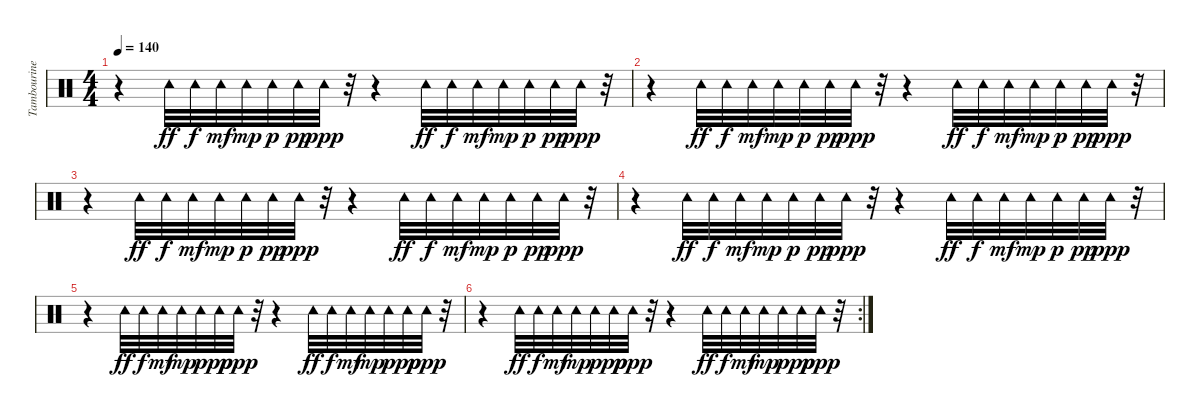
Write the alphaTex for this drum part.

\track ("Tambourine" "Tambourine") {instrument percussion}
\staff {score}
\articulation defaults
\ts (4 4)
\tempo 140
\clef neutral
\ks c
r.4{dy ppp} "Tambourine (hit)".32{dy ff} "Tambourine (hit)".32{dy f} "Tambourine (hit)".32{dy mf} "Tambourine (hit)".32{dy mp} "Tambourine (hit)".32{dy p} "Tambourine (hit)".32{dy pp} "Tambourine (hit)".32{dy ppp} r.32 r.4 "Tambourine (hit)".32{dy ff} "Tambourine (hit)".32{dy f} "Tambourine (hit)".32{dy mf} "Tambourine (hit)".32{dy mp} "Tambourine (hit)".32{dy p} "Tambourine (hit)".32{dy pp} "Tambourine (hit)".32{dy ppp} r.32 |
r.4 "Tambourine (hit)".32{dy ff} "Tambourine (hit)".32{dy f} "Tambourine (hit)".32{dy mf} "Tambourine (hit)".32{dy mp} "Tambourine (hit)".32{dy p} "Tambourine (hit)".32{dy pp} "Tambourine (hit)".32{dy ppp} r.32 r.4 "Tambourine (hit)".32{dy ff} "Tambourine (hit)".32{dy f} "Tambourine (hit)".32{dy mf} "Tambourine (hit)".32{dy mp} "Tambourine (hit)".32{dy p} "Tambourine (hit)".32{dy pp} "Tambourine (hit)".32{dy ppp} r.32 |
r.4 "Tambourine (hit)".32{dy ff} "Tambourine (hit)".32{dy f} "Tambourine (hit)".32{dy mf} "Tambourine (hit)".32{dy mp} "Tambourine (hit)".32{dy p} "Tambourine (hit)".32{dy pp} "Tambourine (hit)".32{dy ppp} r.32 r.4 "Tambourine (hit)".32{dy ff} "Tambourine (hit)".32{dy f} "Tambourine (hit)".32{dy mf} "Tambourine (hit)".32{dy mp} "Tambourine (hit)".32{dy p} "Tambourine (hit)".32{dy pp} "Tambourine (hit)".32{dy ppp} r.32 |
r.4 "Tambourine (hit)".32{dy ff} "Tambourine (hit)".32{dy f} "Tambourine (hit)".32{dy mf} "Tambourine (hit)".32{dy mp} "Tambourine (hit)".32{dy p} "Tambourine (hit)".32{dy pp} "Tambourine (hit)".32{dy ppp} r.32 r.4 "Tambourine (hit)".32{dy ff} "Tambourine (hit)".32{dy f} "Tambourine (hit)".32{dy mf} "Tambourine (hit)".32{dy mp} "Tambourine (hit)".32{dy p} "Tambourine (hit)".32{dy pp} "Tambourine (hit)".32{dy ppp} r.32 |
r.4 "Tambourine (hit)".32{dy ff} "Tambourine (hit)".32{dy f} "Tambourine (hit)".32{dy mf} "Tambourine (hit)".32{dy mp} "Tambourine (hit)".32{dy p} "Tambourine (hit)".32{dy pp} "Tambourine (hit)".32{dy ppp} r.32 r.4 "Tambourine (hit)".32{dy ff} "Tambourine (hit)".32{dy f} "Tambourine (hit)".32{dy mf} "Tambourine (hit)".32{dy mp} "Tambourine (hit)".32{dy p} "Tambourine (hit)".32{dy pp} "Tambourine (hit)".32{dy ppp} r.32 |
\rc 2
r.4 "Tambourine (hit)".32{dy ff} "Tambourine (hit)".32{dy f} "Tambourine (hit)".32{dy mf} "Tambourine (hit)".32{dy mp} "Tambourine (hit)".32{dy p} "Tambourine (hit)".32{dy pp} "Tambourine (hit)".32{dy ppp} r.32 r.4 "Tambourine (hit)".32{dy ff} "Tambourine (hit)".32{dy f} "Tambourine (hit)".32{dy mf} "Tambourine (hit)".32{dy mp} "Tambourine (hit)".32{dy p} "Tambourine (hit)".32{dy pp} "Tambourine (hit)".32{dy ppp} r.32
